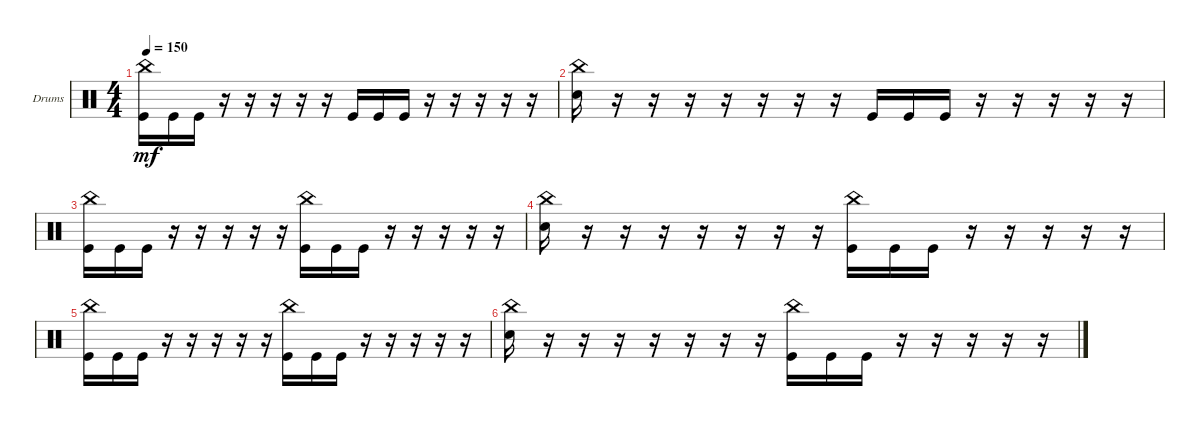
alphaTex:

\defaultSystemsLayout 4
\bracketExtendMode groupsimilarinstruments
\firstSystemTrackNameOrientation horizontal
\otherSystemsTrackNameOrientation horizontal
\track ("Drumkit" "Drums") {instrument percussion}
\staff {score}
\articulation defaults
\ts (4 4)
\tempo 150
\clef neutral
\ks c
("Kick (hit)" "China (hit)").16{dy mf} "Kick (hit)".16 "Kick (hit)".16 r.16 r.16 r.16 r.16 r.16 "Kick (hit)".16 "Kick (hit)".16 "Kick (hit)".16 r.16 r.16 r.16 r.16 r.16 |
("China (hit)" "Snare (hit) 2").16 r.16 r.16 r.16 r.16 r.16 r.16 r.16 "Kick (hit)".16 "Kick (hit)".16 "Kick (hit)".16 r.16 r.16 r.16 r.16 r.16 |
("Kick (hit)" "China (hit)").16 "Kick (hit)".16 "Kick (hit)".16 r.16 r.16 r.16 r.16 r.16 ("Kick (hit)" "China (hit)").16 "Kick (hit)".16 "Kick (hit)".16 r.16 r.16 r.16 r.16 r.16 |
("China (hit)" "Snare (hit) 2").16 r.16 r.16 r.16 r.16 r.16 r.16 r.16 ("Kick (hit)" "China (hit)").16 "Kick (hit)".16 "Kick (hit)".16 r.16 r.16 r.16 r.16 r.16 |
("Kick (hit)" "China (hit)").16 "Kick (hit)".16 "Kick (hit)".16 r.16 r.16 r.16 r.16 r.16 ("Kick (hit)" "China (hit)").16 "Kick (hit)".16 "Kick (hit)".16 r.16 r.16 r.16 r.16 r.16 |
("China (hit)" "Snare (hit) 2").16 r.16 r.16 r.16 r.16 r.16 r.16 r.16 ("Kick (hit)" "China (hit)").16 "Kick (hit)".16 "Kick (hit)".16 r.16 r.16 r.16 r.16 r.16
